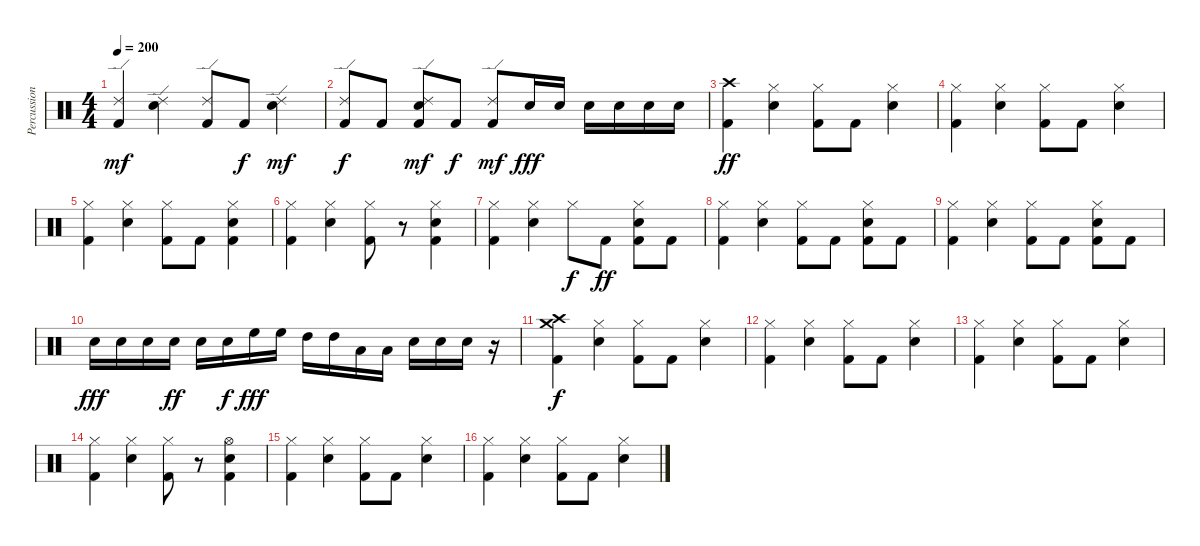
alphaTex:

\track ("Percussion" "Percussion") {instrument percussion}
\staff {score}
\articulation defaults
\ts (4 4)
\tempo 200
\clef neutral
\ks c
("Ride (edge) 2" "Kick (hit) 2").4{dy mf} ("Ride (edge) 2" "Snare (hit) 2").4 ("Ride (edge) 2" "Kick (hit) 2").8 "Kick (hit) 2".8{dy f} ("Ride (edge) 2" "Snare (hit) 2").4{dy mf} |
("Ride (edge) 2" "Kick (hit) 2").8{dy f} "Kick (hit) 2".8 ("Ride (edge) 2" "Snare (hit) 2" "Kick (hit) 2").8{dy mf} "Kick (hit) 2".8{dy f} ("Ride (edge) 2" "Kick (hit) 2").8{dy mf} "Snare (hit) 2".16{dy fff} "Snare (hit) 2".16 "Snare (hit) 2".16 "Snare (hit) 2".16 "Snare (hit) 2".16 "Snare (hit) 2".16 |
("Crash high (hit)" "Kick (hit) 2").4{dy ff} ("Hi-Hat (closed)" "Snare (hit) 2").4 ("Hi-Hat (closed)" "Kick (hit) 2").8 "Kick (hit) 2".8 ("Hi-Hat (closed)" "Snare (hit) 2").4 |
("Hi-Hat (closed)" "Kick (hit) 2").4 ("Hi-Hat (closed)" "Snare (hit) 2").4 ("Hi-Hat (closed)" "Kick (hit) 2").8 "Kick (hit) 2".8 ("Hi-Hat (closed)" "Snare (hit) 2").4 |
("Hi-Hat (closed)" "Kick (hit) 2").4 ("Hi-Hat (closed)" "Snare (hit) 2").4 ("Hi-Hat (closed)" "Kick (hit) 2").8 "Kick (hit) 2".8 ("Hi-Hat (closed)" "Snare (hit) 2" "Kick (hit) 2").4 |
("Hi-Hat (closed)" "Kick (hit) 2").4 ("Hi-Hat (closed)" "Snare (hit) 2").4 ("Hi-Hat (closed)" "Kick (hit) 2").8 r.8 ("Hi-Hat (closed)" "Snare (hit) 2" "Kick (hit) 2").4 |
("Hi-Hat (closed)" "Kick (hit) 2").4 ("Hi-Hat (closed)" "Snare (hit) 2").4 "Hi-Hat (closed)".8{dy f} "Kick (hit) 2".8{dy ff} ("Hi-Hat (closed)" "Snare (hit) 2" "Kick (hit) 2").8 "Kick (hit) 2".8 |
("Hi-Hat (closed)" "Kick (hit) 2").4 ("Hi-Hat (closed)" "Snare (hit) 2").4 ("Hi-Hat (closed)" "Kick (hit) 2").8 "Kick (hit) 2".8 ("Hi-Hat (closed)" "Snare (hit) 2" "Kick (hit) 2").8 "Kick (hit) 2".8 |
("Hi-Hat (closed)" "Kick (hit) 2").4 ("Hi-Hat (closed)" "Snare (hit) 2").4 ("Hi-Hat (closed)" "Kick (hit) 2").8 "Kick (hit) 2".8 ("Hi-Hat (closed)" "Snare (hit) 2" "Kick (hit) 2").8 "Kick (hit) 2".8 |
"Snare (hit) 2".16{dy fff} "Snare (hit) 2".16 "Snare (hit) 2".16 "Snare (hit) 2".16{dy ff} "Snare (hit) 2".16 "Snare (hit) 2".16{dy f} "High Floor Tom (hit)".16{dy fff} "High Floor Tom (hit)".16 "High Tom (hit)".16 "High Tom (hit)".16 "Low Tom (hit)".16 "Low Tom (hit)".16 "Snare (hit) 2".16 "Snare (hit) 2".16 "Snare (hit) 2".16 r.16 |
("Crash high (hit)" "Crash medium (hit)" "Kick (hit) 2").4{dy f} ("Hi-Hat (closed)" "Snare (hit) 2").4 ("Hi-Hat (closed)" "Kick (hit) 2").8 "Kick (hit) 2".8 ("Hi-Hat (closed)" "Snare (hit) 2").4 |
("Hi-Hat (closed)" "Kick (hit) 2").4 ("Hi-Hat (closed)" "Snare (hit) 2").4 ("Hi-Hat (closed)" "Kick (hit) 2").8 "Kick (hit) 2".8 ("Hi-Hat (closed)" "Snare (hit) 2").4 |
("Hi-Hat (closed)" "Kick (hit) 2").4 ("Hi-Hat (closed)" "Snare (hit) 2").4 ("Hi-Hat (closed)" "Kick (hit) 2").8 "Kick (hit) 2".8 ("Hi-Hat (closed)" "Snare (hit) 2").4 |
("Hi-Hat (closed)" "Kick (hit) 2").4 ("Hi-Hat (closed)" "Snare (hit) 2").4 ("Hi-Hat (closed)" "Kick (hit) 2").8 r.8 ("Hi-Hat (open)" "Snare (hit) 2" "Kick (hit) 2").4 |
("Hi-Hat (closed)" "Kick (hit) 2").4 ("Hi-Hat (closed)" "Snare (hit) 2").4 ("Hi-Hat (closed)" "Kick (hit) 2").8 "Kick (hit) 2".8 ("Hi-Hat (closed)" "Snare (hit) 2").4 |
("Hi-Hat (closed)" "Kick (hit) 2").4 ("Hi-Hat (closed)" "Snare (hit) 2").4 ("Hi-Hat (closed)" "Kick (hit) 2").8 "Kick (hit) 2".8 ("Hi-Hat (closed)" "Snare (hit) 2").4
